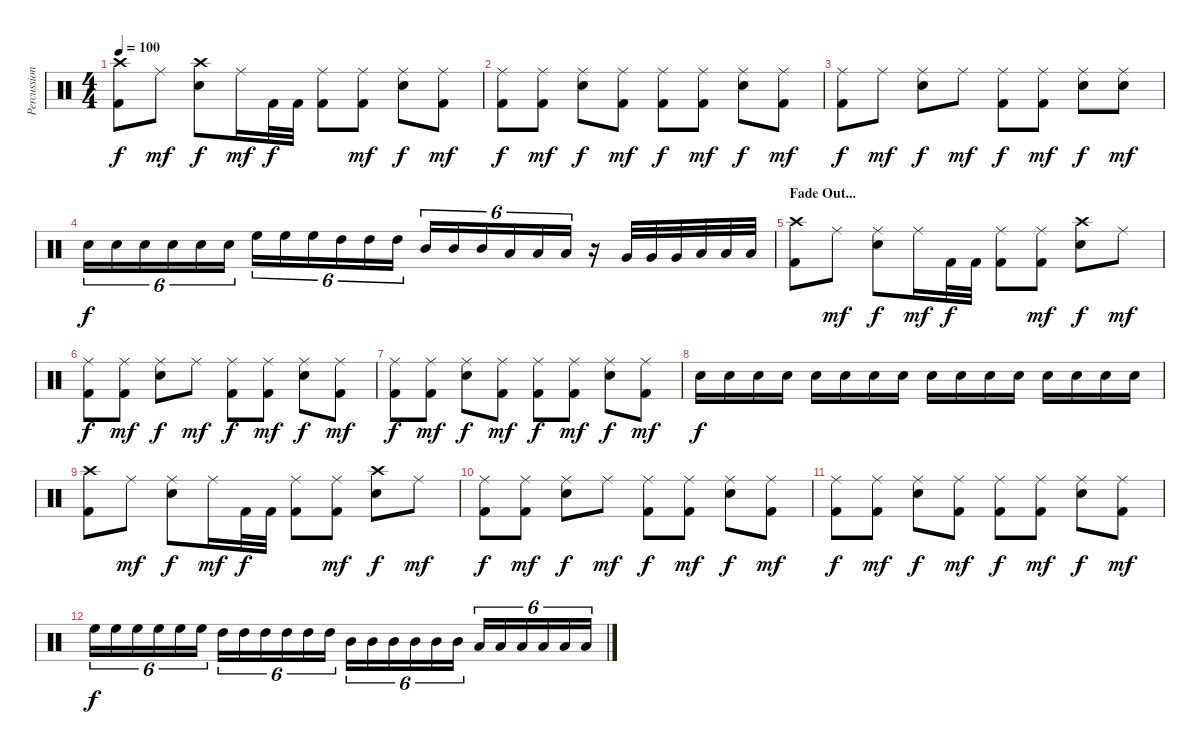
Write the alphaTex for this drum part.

\track ("Percussion" "Percussion") {instrument percussion}
\staff {score}
\articulation defaults
\ts (4 4)
\tempo 100
\clef neutral
\ks c
("Crash high (hit)" "Kick (hit) 2").8{dy f} "Ride (middle)".8{dy mf} ("Crash high (hit)" "Electric Snare (hit)").8{dy f} "Ride (middle)".16{dy mf} "Kick (hit) 2".32{dy f} "Kick (hit) 2".32 ("Ride (middle)" "Kick (hit) 2").8 ("Ride (middle)" "Kick (hit) 2").8{dy mf} ("Ride (middle)" "Electric Snare (hit)").8{dy f} ("Ride (middle)" "Kick (hit) 2").8{dy mf} |
("Ride (middle)" "Kick (hit) 2").8{dy f} ("Ride (middle)" "Kick (hit) 2").8{dy mf} ("Ride (middle)" "Electric Snare (hit)").8{dy f} ("Ride (middle)" "Kick (hit) 2").8{dy mf} ("Ride (middle)" "Kick (hit) 2").8{dy f} ("Ride (middle)" "Kick (hit) 2").8{dy mf} ("Ride (middle)" "Electric Snare (hit)").8{dy f} ("Ride (middle)" "Kick (hit) 2").8{dy mf} |
("Ride (middle)" "Kick (hit) 2").8{dy f} "Ride (middle)".8{dy mf} ("Ride (middle)" "Electric Snare (hit)").8{dy f} "Ride (middle)".8{dy mf} ("Ride (middle)" "Kick (hit) 2").8{dy f} ("Ride (middle)" "Kick (hit) 2").8{dy mf} ("Ride (middle)" "Electric Snare (hit)").8{dy f} ("Ride (middle)" "Electric Snare (hit)").8{dy mf} |
"Electric Snare (hit)".16{tu (6 4) dy f} "Electric Snare (hit)".16{tu (6 4)} "Electric Snare (hit)".16{tu (6 4)} "Electric Snare (hit)".16{tu (6 4)} "Electric Snare (hit)".16{tu (6 4)} "Electric Snare (hit)".16{tu (6 4)} "High Floor Tom (hit)".16{tu (6 4)} "High Floor Tom (hit)".16{tu (6 4)} "High Floor Tom (hit)".16{tu (6 4)} "High Tom (hit)".16{tu (6 4)} "High Tom (hit)".16{tu (6 4)} "High Tom (hit)".16{tu (6 4)} "Mid Tom (hit)".16{tu (6 4)} "Mid Tom (hit)".16{tu (6 4)} "Mid Tom (hit)".16{tu (6 4)} "Low Tom (hit)".16{tu (6 4)} "Low Tom (hit)".16{tu (6 4)} "Low Tom (hit)".16{tu (6 4)} r.16 "Very Low Tom (hit)".32 "Very Low Tom (hit)".32 "Very Low Tom (hit)".32 "Low Floor Tom (hit)".32 "Low Floor Tom (hit)".32 "Low Floor Tom (hit)".32 |
\section ("" "Fade Out...")
("Crash high (hit)" "Kick (hit) 2").8 "Ride (middle)".8{dy mf} ("Ride (middle)" "Electric Snare (hit)").8{dy f} "Ride (middle)".16{dy mf} "Kick (hit) 2".32{dy f} "Kick (hit) 2".32 ("Ride (middle)" "Kick (hit) 2").8 ("Ride (middle)" "Kick (hit) 2").8{dy mf} ("Crash high (hit)" "Electric Snare (hit)").8{dy f} "Ride (middle)".8{dy mf} |
("Ride (middle)" "Kick (hit) 2").8{dy f} ("Ride (middle)" "Kick (hit) 2").8{dy mf} ("Ride (middle)" "Electric Snare (hit)").8{dy f} "Ride (middle)".8{dy mf} ("Ride (middle)" "Kick (hit) 2").8{dy f} ("Ride (middle)" "Kick (hit) 2").8{dy mf} ("Ride (middle)" "Electric Snare (hit)").8{dy f} ("Ride (middle)" "Kick (hit) 2").8{dy mf} |
("Ride (middle)" "Kick (hit) 2").8{dy f} ("Ride (middle)" "Kick (hit) 2").8{dy mf} ("Ride (middle)" "Electric Snare (hit)").8{dy f} ("Ride (middle)" "Kick (hit) 2").8{dy mf} ("Ride (middle)" "Kick (hit) 2").8{dy f} ("Ride (middle)" "Kick (hit) 2").8{dy mf} ("Ride (middle)" "Electric Snare (hit)").8{dy f} ("Ride (middle)" "Kick (hit) 2").8{dy mf} |
"Electric Snare (hit)".16{dy f} "Electric Snare (hit)".16 "Electric Snare (hit)".16 "Electric Snare (hit)".16 "Electric Snare (hit)".16 "Electric Snare (hit)".16 "Electric Snare (hit)".16 "Electric Snare (hit)".16 "Electric Snare (hit)".16 "Electric Snare (hit)".16 "Electric Snare (hit)".16 "Electric Snare (hit)".16 "Electric Snare (hit)".16 "Electric Snare (hit)".16 "Electric Snare (hit)".16 "Electric Snare (hit)".16 |
("Crash high (hit)" "Kick (hit) 2").8 "Ride (middle)".8{dy mf} ("Ride (middle)" "Electric Snare (hit)").8{dy f} "Ride (middle)".16{dy mf} "Kick (hit) 2".32{dy f} "Kick (hit) 2".32 ("Ride (middle)" "Kick (hit) 2").8 ("Ride (middle)" "Kick (hit) 2").8{dy mf} ("Crash high (hit)" "Electric Snare (hit)").8{dy f} "Ride (middle)".8{dy mf} |
("Ride (middle)" "Kick (hit) 2").8{dy f} ("Ride (middle)" "Kick (hit) 2").8{dy mf} ("Ride (middle)" "Electric Snare (hit)").8{dy f} "Ride (middle)".8{dy mf} ("Ride (middle)" "Kick (hit) 2").8{dy f} ("Ride (middle)" "Kick (hit) 2").8{dy mf} ("Ride (middle)" "Electric Snare (hit)").8{dy f} ("Ride (middle)" "Kick (hit) 2").8{dy mf} |
("Ride (middle)" "Kick (hit) 2").8{dy f} ("Ride (middle)" "Kick (hit) 2").8{dy mf} ("Ride (middle)" "Electric Snare (hit)").8{dy f} ("Ride (middle)" "Kick (hit) 2").8{dy mf} ("Ride (middle)" "Kick (hit) 2").8{dy f} ("Ride (middle)" "Kick (hit) 2").8{dy mf} ("Ride (middle)" "Electric Snare (hit)").8{dy f} ("Ride (middle)" "Kick (hit) 2").8{dy mf} |
"High Floor Tom (hit)".16{tu (6 4) dy f} "High Floor Tom (hit)".16{tu (6 4)} "High Floor Tom (hit)".16{tu (6 4)} "High Floor Tom (hit)".16{tu (6 4)} "High Floor Tom (hit)".16{tu (6 4)} "High Floor Tom (hit)".16{tu (6 4)} "High Tom (hit)".16{tu (6 4)} "High Tom (hit)".16{tu (6 4)} "High Tom (hit)".16{tu (6 4)} "High Tom (hit)".16{tu (6 4)} "High Tom (hit)".16{tu (6 4)} "High Tom (hit)".16{tu (6 4)} "Mid Tom (hit)".16{tu (6 4)} "Mid Tom (hit)".16{tu (6 4)} "Mid Tom (hit)".16{tu (6 4)} "Mid Tom (hit)".16{tu (6 4)} "Mid Tom (hit)".16{tu (6 4)} "Mid Tom (hit)".16{tu (6 4)} "Low Tom (hit)".16{tu (6 4)} "Low Tom (hit)".16{tu (6 4)} "Low Tom (hit)".16{tu (6 4)} "Low Tom (hit)".16{tu (6 4)} "Low Tom (hit)".16{tu (6 4)} "Low Tom (hit)".16{tu (6 4)}
